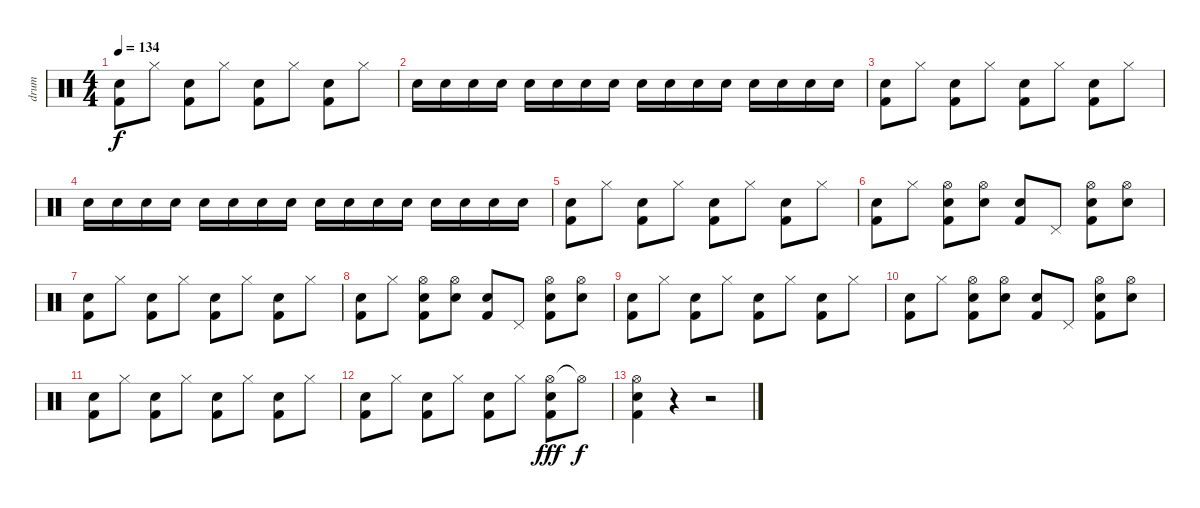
\track ("drum" "drum") {instrument percussion}
\staff {score}
\articulation defaults
\ts (4 4)
\tempo 134
\clef neutral
\ks c
("Electric Snare (hit)" "Kick (hit) 2").8{dy f} "Hi-Hat (closed)".8 ("Electric Snare (hit)" "Kick (hit) 2").8 "Hi-Hat (closed)".8 ("Electric Snare (hit)" "Kick (hit) 2").8 "Hi-Hat (closed)".8 ("Electric Snare (hit)" "Kick (hit) 2").8 "Hi-Hat (closed)".8 |
"Electric Snare (hit)".16 "Electric Snare (hit)".16 "Electric Snare (hit)".16 "Electric Snare (hit)".16 "Electric Snare (hit)".16 "Electric Snare (hit)".16 "Electric Snare (hit)".16 "Electric Snare (hit)".16 "Electric Snare (hit)".16 "Electric Snare (hit)".16 "Electric Snare (hit)".16 "Electric Snare (hit)".16 "Electric Snare (hit)".16 "Electric Snare (hit)".16 "Electric Snare (hit)".16 "Electric Snare (hit)".16 |
("Electric Snare (hit)" "Kick (hit) 2").8 "Hi-Hat (closed)".8 ("Electric Snare (hit)" "Kick (hit) 2").8 "Hi-Hat (closed)".8 ("Electric Snare (hit)" "Kick (hit) 2").8 "Hi-Hat (closed)".8 ("Electric Snare (hit)" "Kick (hit) 2").8 "Hi-Hat (closed)".8 |
"Electric Snare (hit)".16 "Electric Snare (hit)".16 "Electric Snare (hit)".16 "Electric Snare (hit)".16 "Electric Snare (hit)".16 "Electric Snare (hit)".16 "Electric Snare (hit)".16 "Electric Snare (hit)".16 "Electric Snare (hit)".16 "Electric Snare (hit)".16 "Electric Snare (hit)".16 "Electric Snare (hit)".16 "Electric Snare (hit)".16 "Electric Snare (hit)".16 "Electric Snare (hit)".16 "Electric Snare (hit)".16 |
("Electric Snare (hit)" "Kick (hit) 2").8 "Hi-Hat (closed)".8 ("Electric Snare (hit)" "Kick (hit) 2").8 "Hi-Hat (closed)".8 ("Electric Snare (hit)" "Kick (hit) 2").8 "Hi-Hat (closed)".8 ("Electric Snare (hit)" "Kick (hit) 2").8 "Hi-Hat (closed)".8 |
("Electric Snare (hit)" "Kick (hit) 2").8 "Hi-Hat (closed)".8 ("Hi-Hat (open)" "Electric Snare (hit)" "Kick (hit) 2").8 ("Hi-Hat (open)" "Electric Snare (hit)").8 ("Electric Snare (hit)" "Kick (hit) 2").8 "Pedal Hi-Hat (hit)".8 ("Hi-Hat (open)" "Electric Snare (hit)" "Kick (hit) 2").8 ("Hi-Hat (open)" "Electric Snare (hit)").8 |
("Electric Snare (hit)" "Kick (hit) 2").8 "Hi-Hat (closed)".8 ("Electric Snare (hit)" "Kick (hit) 2").8 "Hi-Hat (closed)".8 ("Electric Snare (hit)" "Kick (hit) 2").8 "Hi-Hat (closed)".8 ("Electric Snare (hit)" "Kick (hit) 2").8 "Hi-Hat (closed)".8 |
("Electric Snare (hit)" "Kick (hit) 2").8 "Hi-Hat (closed)".8 ("Hi-Hat (open)" "Electric Snare (hit)" "Kick (hit) 2").8 ("Hi-Hat (open)" "Electric Snare (hit)").8 ("Electric Snare (hit)" "Kick (hit) 2").8 "Pedal Hi-Hat (hit)".8 ("Hi-Hat (open)" "Electric Snare (hit)" "Kick (hit) 2").8 ("Hi-Hat (open)" "Electric Snare (hit)").8 |
("Electric Snare (hit)" "Kick (hit) 2").8 "Hi-Hat (closed)".8 ("Electric Snare (hit)" "Kick (hit) 2").8 "Hi-Hat (closed)".8 ("Electric Snare (hit)" "Kick (hit) 2").8 "Hi-Hat (closed)".8 ("Electric Snare (hit)" "Kick (hit) 2").8 "Hi-Hat (closed)".8 |
("Electric Snare (hit)" "Kick (hit) 2").8 "Hi-Hat (closed)".8 ("Hi-Hat (open)" "Electric Snare (hit)" "Kick (hit) 2").8 ("Hi-Hat (open)" "Electric Snare (hit)").8 ("Electric Snare (hit)" "Kick (hit) 2").8 "Pedal Hi-Hat (hit)".8 ("Hi-Hat (open)" "Electric Snare (hit)" "Kick (hit) 2").8 ("Hi-Hat (open)" "Electric Snare (hit)").8 |
("Electric Snare (hit)" "Kick (hit) 2").8 "Hi-Hat (closed)".8 ("Electric Snare (hit)" "Kick (hit) 2").8 "Hi-Hat (closed)".8 ("Electric Snare (hit)" "Kick (hit) 2").8 "Hi-Hat (closed)".8 ("Electric Snare (hit)" "Kick (hit) 2").8 "Hi-Hat (closed)".8 |
("Electric Snare (hit)" "Kick (hit) 2").8 "Hi-Hat (closed)".8 ("Electric Snare (hit)" "Kick (hit) 2").8 "Hi-Hat (closed)".8 ("Electric Snare (hit)" "Kick (hit) 2").8 "Hi-Hat (closed)".8 ("Hi-Hat (open)" "Electric Snare (hit)" "Kick (hit) 2").8{dy fff} "Hi-Hat (open)"{t}.8{dy f} |
("Hi-Hat (open)" "Electric Snare (hit)" "Kick (hit) 2").4{volume 16} r.4 r.2
